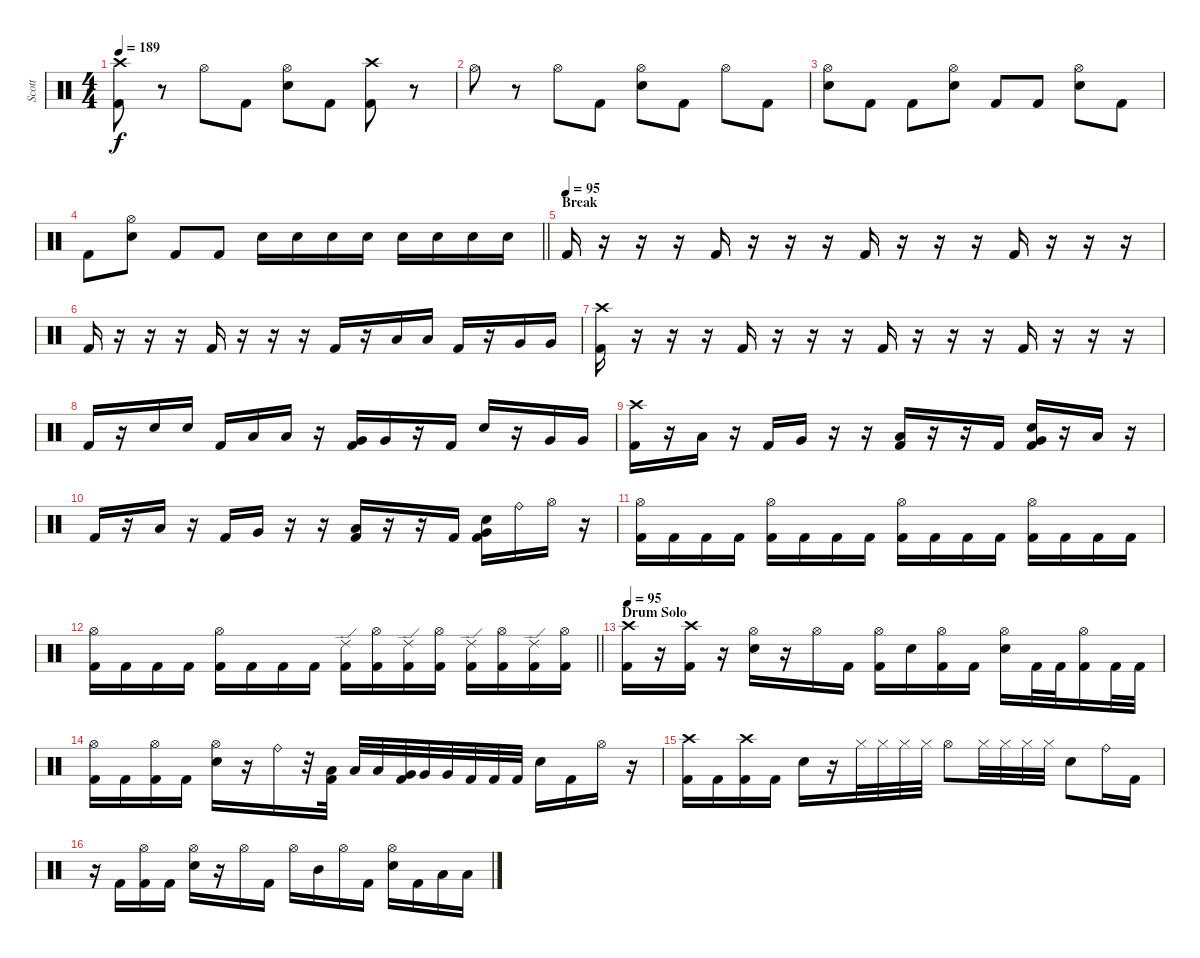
\track ("Scott" "Scott") {instrument percussion}
\staff {score}
\articulation defaults
\ts (4 4)
\tempo 189
\clef neutral
\ks c
("Crash high (hit)" "Kick (hit) 2").8{dy f} r.8 "Hi-Hat (open)".8 "Kick (hit) 2".8 ("Hi-Hat (open)" "Electric Snare (hit)").8 "Kick (hit) 2".8 ("Crash high (hit)" "Kick (hit) 2").8 r.8 |
"Hi-Hat (open)".8 r.8 "Hi-Hat (open)".8 "Kick (hit) 2".8 ("Hi-Hat (open)" "Electric Snare (hit)").8 "Kick (hit) 2".8 "Hi-Hat (open)".8 "Kick (hit) 2".8 |
("Hi-Hat (open)" "Electric Snare (hit)").8 "Kick (hit) 2".8 "Kick (hit) 2".8 ("Hi-Hat (open)" "Electric Snare (hit)").8 "Kick (hit) 2".8 "Kick (hit) 2".8 ("Hi-Hat (open)" "Electric Snare (hit)").8 "Kick (hit) 2".8 |
\barLineRight lightlight "Kick (hit) 2".8
("Hi-Hat (open)" "Electric Snare (hit)").8 "Kick (hit) 2".8 "Kick (hit) 2".8 "Electric Snare (hit)".16 "Electric Snare (hit)".16 "Electric Snare (hit)".16 "Electric Snare (hit)".16 "Electric Snare (hit)".16 "Electric Snare (hit)".16 "Electric Snare (hit)".16 "Electric Snare (hit)".16 |
\section ("" "Break")
\tempo (95)
"Kick (hit) 2".16 r.16 r.16 r.16 "Kick (hit) 2".16 r.16 r.16 r.16 "Kick (hit) 2".16 r.16 r.16 r.16 "Kick (hit) 2".16 r.16 r.16 r.16 |
"Kick (hit) 2".16 r.16 r.16 r.16 "Kick (hit) 2".16 r.16 r.16 r.16 "Kick (hit) 2".16 r.16 "Low Tom (hit)".16 "Low Tom (hit)".16 "Kick (hit) 2".16 r.16 "Very Low Tom (hit)".16 "Very Low Tom (hit)".16 |
("Crash high (hit)" "Kick (hit) 2").16 r.16 r.16 r.16 "Kick (hit) 2".16 r.16 r.16 r.16 "Kick (hit) 2".16 r.16 r.16 r.16 "Kick (hit) 2".16 r.16 r.16 r.16 |
"Kick (hit) 2".16 r.16 "Electric Snare (hit)".16 "Electric Snare (hit)".16 "Kick (hit) 2".16 "Low Tom (hit)".16 "Low Tom (hit)".16 r.16 ("Very Low Tom (hit)" "Kick (hit) 2").16 "Very Low Tom (hit)".16 r.16 "Kick (hit) 2".16 "Electric Snare (hit)".16 r.16 "Very Low Tom (hit)".16 "Very Low Tom (hit)".16 |
("Crash high (hit)" "Kick (hit) 2").16 r.16 "Low Tom (hit)".16 r.16 "Kick (hit) 2".16 "Very Low Tom (hit)".16 r.16 r.16 ("Low Floor Tom (hit)" "Kick (hit) 2").16 r.16 r.16 "Kick (hit) 2".16 ("Very Low Tom (hit)" "Electric Snare (hit)" "Kick (hit) 2").16 r.16 "Low Floor Tom (hit)".16 r.16 |
"Kick (hit) 2".16 r.16 "Low Tom (hit)".16 r.16 "Kick (hit) 2".16 "Very Low Tom (hit)".16 r.16 r.16 ("Low Floor Tom (hit)" "Kick (hit) 2").16 r.16 r.16 "Kick (hit) 2".16 ("Very Low Tom (hit)" "Electric Snare (hit)" "Kick (hit) 2").16 "Ride (bell)".16 "Hi-Hat (open)".16 r.16 |
("Hi-Hat (open)" "Kick (hit) 2").16 "Kick (hit) 2".16 "Kick (hit) 2".16 "Kick (hit) 2".16 ("Hi-Hat (open)" "Kick (hit) 2").16 "Kick (hit) 2".16 "Kick (hit) 2".16 "Kick (hit) 2".16 ("Hi-Hat (open)" "Kick (hit) 2").16 "Kick (hit) 2".16 "Kick (hit) 2".16 "Kick (hit) 2".16 ("Hi-Hat (open)" "Kick (hit) 2").16 "Kick (hit) 2".16 "Kick (hit) 2".16 "Kick (hit) 2".16 |
\barLineRight lightlight
("Hi-Hat (open)" "Kick (hit) 2").16 "Kick (hit) 2".16 "Kick (hit) 2".16 "Kick (hit) 2".16 ("Hi-Hat (open)" "Kick (hit) 2").16 "Kick (hit) 2".16 "Kick (hit) 2".16 "Kick (hit) 2".16 ("Ride (edge) 2" "Kick (hit) 2").16 ("Hi-Hat (open)" "Kick (hit) 2").16 ("Ride (edge) 2" "Kick (hit) 2").16 ("Hi-Hat (open)" "Kick (hit) 2").16 ("Ride (edge) 2" "Kick (hit) 2").16 ("Hi-Hat (open)" "Kick (hit) 2").16 ("Ride (edge) 2" "Kick (hit) 2").16 ("Hi-Hat (open)" "Kick (hit) 2").16 |
\section ("" "Drum Solo")
\tempo 95
("Crash high (hit)" "Kick (hit) 2").16 r.16 ("Crash high (hit)" "Kick (hit) 2").16 r.16 ("Hi-Hat (open)" "Electric Snare (hit)").16 r.16 "Hi-Hat (open)".16 "Kick (hit) 2".16 ("Hi-Hat (open)" "Kick (hit) 2").16 "Electric Snare (hit)".16 ("Hi-Hat (open)" "Kick (hit) 2").16 "Kick (hit) 2".16 ("Hi-Hat (open)" "Electric Snare (hit)").16 "Kick (hit) 2".32 "Kick (hit) 2".32 ("Hi-Hat (open)" "Kick (hit) 2").16 "Kick (hit) 2".32 "Kick (hit) 2".32 |
("Hi-Hat (open)" "Kick (hit) 2").16 "Kick (hit) 2".16 ("Hi-Hat (open)" "Kick (hit) 2").16 "Kick (hit) 2".16 ("Hi-Hat (open)" "Electric Snare (hit)").16 r.16 "Ride (bell)".16 r.32 ("Low Tom (hit)" "Kick (hit) 2").32 "Low Tom (hit)".32 "Low Tom (hit)".32 ("Very Low Tom (hit)" "Kick (hit) 2").32 "Very Low Tom (hit)".32 "Very Low Tom (hit)".32 "Kick (hit) 2".32 "Kick (hit) 2".32 "Kick (hit) 2".32 "Electric Snare (hit)".16 "Kick (hit) 2".16 "Hi-Hat (open)".16 r.16 |
("Crash high (hit)" "Kick (hit) 2").16 "Kick (hit) 2".16 ("Crash high (hit)" "Kick (hit) 2").16 "Kick (hit) 2".16 "Electric Snare (hit)".16 r.16 "Hi-Hat (closed)".32 "Hi-Hat (closed)".32 "Hi-Hat (closed)".32 "Hi-Hat (closed)".32 "Hi-Hat (open)".8 "Hi-Hat (closed)".32 "Hi-Hat (closed)".32 "Hi-Hat (closed)".32 "Hi-Hat (closed)".32 "Electric Snare (hit)".8 "Ride (bell)".16 "Kick (hit) 2".16 |
r.16 "Kick (hit) 2".16 ("Hi-Hat (open)" "Kick (hit) 2").16 "Kick (hit) 2".16 ("Hi-Hat (open)" "Electric Snare (hit)").16 r.16 "Hi-Hat (open)".16 "Kick (hit) 2".16 "Hi-Hat (open)".16 "Mid Tom (hit)".16 "Hi-Hat (open)".16 "Kick (hit) 2".16 ("Hi-Hat (open)" "Electric Snare (hit)").16 "Kick (hit) 2".16 "Low Tom (hit)".16 "Low Tom (hit)".16
